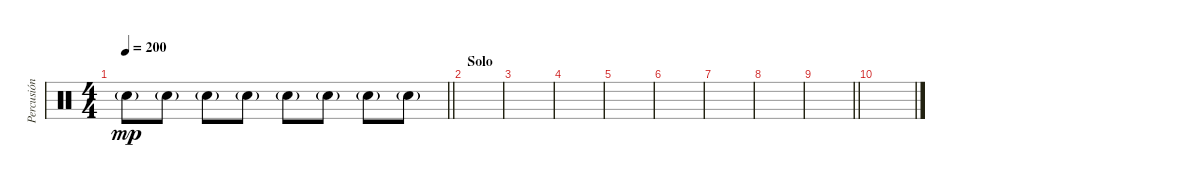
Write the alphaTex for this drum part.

\track ("Percusión" "Percusión") {instrument percussion}
\staff {score}
\articulation defaults
\ts (4 4)
\tempo 200
\clef neutral
\barLineRight lightlight
\ks c "Hand Clap (hit)"{g}.8{dy mp} "Hand Clap (hit)"{g}.8 "Hand Clap (hit)"{g}.8 "Hand Clap (hit)"{g}.8 "Hand Clap (hit)"{g}.8 "Hand Clap (hit)"{g}.8 "Hand Clap (hit)"{g}.8 "Hand Clap (hit)"{g}.8
|
\section ("" "Solo")
|
|
|
|
|
|
|
\barLineRight lightlight
|
\section ("" "")
